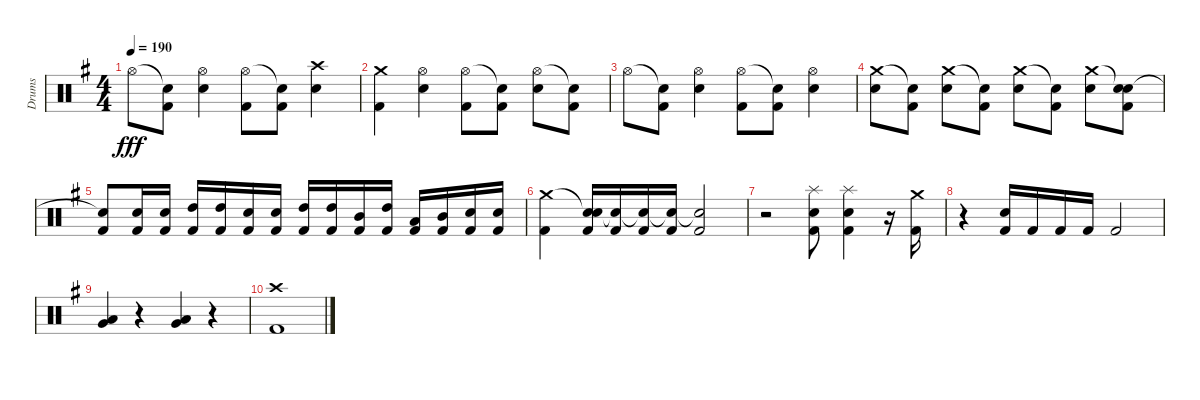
\track ("Drums" "Drums") {instrument percussion}
\staff {score}
\articulation defaults
\ts (4 4)
\tempo 190
\clef neutral
\ks eminor "Hi-Hat (open)".8{dy fff}
("Snare (hit)"{t} "Kick (hit) 2").8 ("Hi-Hat (open)" "Electric Snare (hit)").4 ("Hi-Hat (open)" "Kick (hit) 2").8 ("Snare (hit)"{t} "Kick (hit) 2").8 ("Crash high (hit)" "Electric Snare (hit)").4 |
("Crash medium (hit)" "Kick (hit) 2").4 ("Hi-Hat (open)" "Electric Snare (hit)").4 ("Hi-Hat (open)" "Kick (hit) 2").8 ("Snare (hit)"{t} "Kick (hit) 2").8 ("Hi-Hat (open)" "Electric Snare (hit)").8 ("Snare (hit)"{t} "Kick (hit) 2").8 |
"Hi-Hat (open)".8 ("Snare (hit)"{t} "Kick (hit) 2").8 ("Hi-Hat (open)" "Electric Snare (hit)").4 ("Hi-Hat (open)" "Kick (hit) 2").8 ("Snare (hit)"{t} "Kick (hit) 2").8 ("Hi-Hat (open)" "Electric Snare (hit)").4 |
("Crash medium (hit)" "Electric Snare (hit)").8 ("Snare (hit)"{t} "Kick (hit) 2").8 ("Crash medium (hit)" "Electric Snare (hit)").8 ("Snare (hit)"{t} "Kick (hit) 2").8 ("Crash medium (hit)" "Electric Snare (hit)").8 ("Snare (hit)"{t} "Kick (hit) 2").8 ("Crash medium (hit)" "Electric Snare (hit)").8 ("Snare (hit)"{t} "Electric Snare (hit)" "Kick (hit) 2").8 |
("Snare (hit)"{t} "Kick (hit) 2").8 ("Electric Snare (hit)" "Kick (hit) 2").16 ("Electric Snare (hit)" "Kick (hit) 2").16 ("High Tom (hit)" "Kick (hit) 2").16 ("High Tom (hit)" "Kick (hit) 2").16 ("Electric Snare (hit)" "Kick (hit) 2").16 ("Electric Snare (hit)" "Kick (hit) 2").16 ("High Tom (hit)" "Kick (hit) 2").16 ("High Tom (hit)" "Kick (hit) 2").16 ("Mid Tom (hit)" "Kick (hit) 2").16 ("High Tom (hit)" "Kick (hit) 2").16 ("Low Tom (hit)" "Kick (hit) 2").16 ("Mid Tom (hit)" "Kick (hit) 2").16 ("Electric Snare (hit)" "Kick (hit) 2").16 ("Electric Snare (hit)" "Kick (hit) 2").16 |
("Crash medium (hit)" "Kick (hit) 2").4 ("Snare (hit)"{t} "Electric Snare (hit)" "Kick (hit) 2").16 ("Snare (hit)"{t} "Kick (hit) 2").16 ("Snare (hit)"{t} "Kick (hit) 2").16 ("Snare (hit)"{t} "Kick (hit) 2").16 ("Snare (hit)"{t} "Kick (hit) 2").2 |
r.2 ("Splash (hit)" "Electric Snare (hit)" "Kick (hit) 2").8 ("Splash (hit)" "Electric Snare (hit)" "Kick (hit) 2").4 r.16 ("Crash medium (hit)" "Kick (hit) 2").16 |
r.4 ("Electric Snare (hit)" "Kick (hit) 2").16 "Kick (hit) 2".16 "Kick (hit) 2".16 "Kick (hit) 2".16 "Kick (hit) 2".2 |
("Very Low Tom (hit)" "Low Floor Tom (hit)").4 r.4 ("Very Low Tom (hit)" "Low Floor Tom (hit)").4 r.4 |
("Crash high (hit)" "Kick (hit) 2").1
